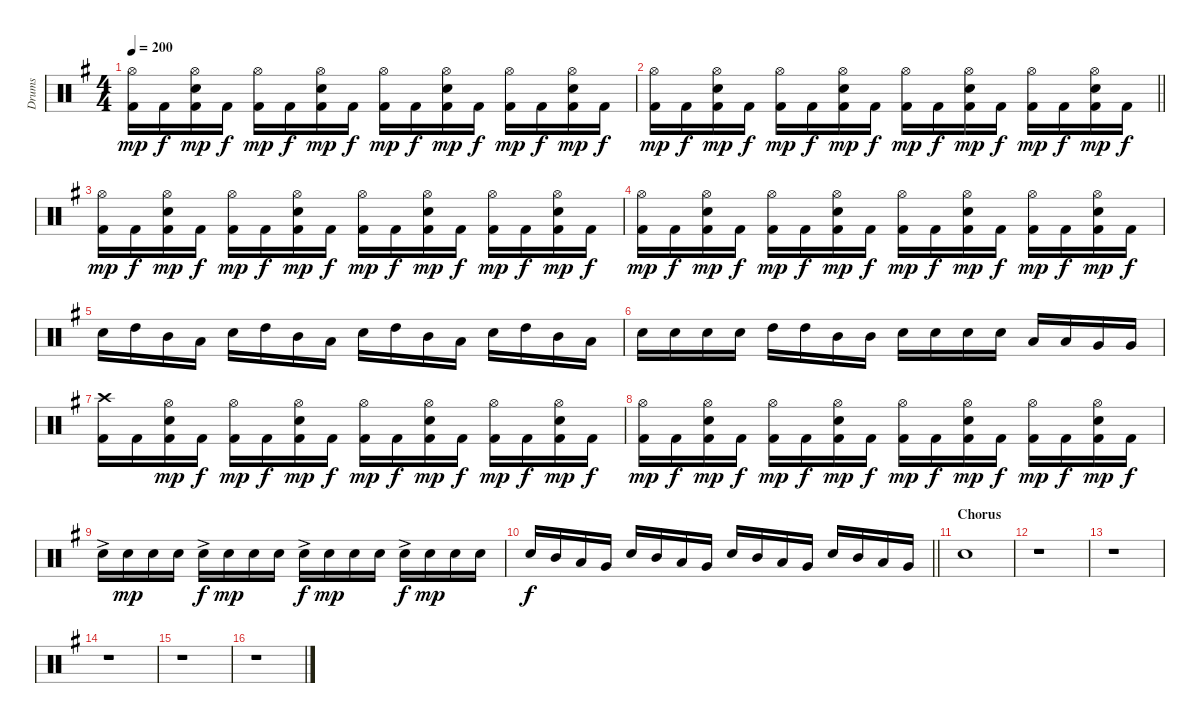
\track ("Drums" "Drums") {instrument percussion}
\staff {score}
\articulation defaults
\ts (4 4)
\tempo 200
\clef neutral
\ks g
("Hi-Hat (open)" "Kick (hit) 2").16{dy mp} "Kick (hit) 2".16{dy f} ("Hi-Hat (open)" "Snare (hit) 2" "Kick (hit) 2").16{dy mp} "Kick (hit) 2".16{dy f} ("Hi-Hat (open)" "Kick (hit) 2").16{dy mp} "Kick (hit) 2".16{dy f} ("Hi-Hat (open)" "Snare (hit) 2" "Kick (hit) 2").16{dy mp} "Kick (hit) 2".16{dy f} ("Hi-Hat (open)" "Kick (hit) 2").16{dy mp} "Kick (hit) 2".16{dy f} ("Hi-Hat (open)" "Snare (hit) 2" "Kick (hit) 2").16{dy mp} "Kick (hit) 2".16{dy f} ("Hi-Hat (open)" "Kick (hit) 2").16{dy mp} "Kick (hit) 2".16{dy f} ("Hi-Hat (open)" "Snare (hit) 2" "Kick (hit) 2").16{dy mp} "Kick (hit) 2".16{dy f} |
\barLineRight lightlight
("Hi-Hat (open)" "Kick (hit) 2").16{dy mp} "Kick (hit) 2".16{dy f} ("Hi-Hat (open)" "Snare (hit) 2" "Kick (hit) 2").16{dy mp} "Kick (hit) 2".16{dy f} ("Hi-Hat (open)" "Kick (hit) 2").16{dy mp} "Kick (hit) 2".16{dy f} ("Hi-Hat (open)" "Snare (hit) 2" "Kick (hit) 2").16{dy mp} "Kick (hit) 2".16{dy f} ("Hi-Hat (open)" "Kick (hit) 2").16{dy mp} "Kick (hit) 2".16{dy f} ("Hi-Hat (open)" "Snare (hit) 2" "Kick (hit) 2").16{dy mp} "Kick (hit) 2".16{dy f} ("Hi-Hat (open)" "Kick (hit) 2").16{dy mp} "Kick (hit) 2".16{dy f} ("Hi-Hat (open)" "Snare (hit) 2" "Kick (hit) 2").16{dy mp} "Kick (hit) 2".16{dy f} |
\section ("" "")
("Hi-Hat (open)" "Kick (hit) 2").16{dy mp} "Kick (hit) 2".16{dy f} ("Hi-Hat (open)" "Snare (hit) 2" "Kick (hit) 2").16{dy mp} "Kick (hit) 2".16{dy f} ("Hi-Hat (open)" "Kick (hit) 2").16{dy mp} "Kick (hit) 2".16{dy f} ("Hi-Hat (open)" "Snare (hit) 2" "Kick (hit) 2").16{dy mp} "Kick (hit) 2".16{dy f} ("Hi-Hat (open)" "Kick (hit) 2").16{dy mp} "Kick (hit) 2".16{dy f} ("Hi-Hat (open)" "Snare (hit) 2" "Kick (hit) 2").16{dy mp} "Kick (hit) 2".16{dy f} ("Hi-Hat (open)" "Kick (hit) 2").16{dy mp} "Kick (hit) 2".16{dy f} ("Hi-Hat (open)" "Snare (hit) 2" "Kick (hit) 2").16{dy mp} "Kick (hit) 2".16{dy f} |
("Hi-Hat (open)" "Kick (hit) 2").16{dy mp} "Kick (hit) 2".16{dy f} ("Hi-Hat (open)" "Snare (hit) 2" "Kick (hit) 2").16{dy mp} "Kick (hit) 2".16{dy f} ("Hi-Hat (open)" "Kick (hit) 2").16{dy mp} "Kick (hit) 2".16{dy f} ("Hi-Hat (open)" "Snare (hit) 2" "Kick (hit) 2").16{dy mp} "Kick (hit) 2".16{dy f} ("Hi-Hat (open)" "Kick (hit) 2").16{dy mp} "Kick (hit) 2".16{dy f} ("Hi-Hat (open)" "Snare (hit) 2" "Kick (hit) 2").16{dy mp} "Kick (hit) 2".16{dy f} ("Hi-Hat (open)" "Kick (hit) 2").16{dy mp} "Kick (hit) 2".16{dy f} ("Hi-Hat (open)" "Snare (hit) 2" "Kick (hit) 2").16{dy mp} "Kick (hit) 2".16{dy f} |
"Snare (hit) 2".16 "High Tom (hit)".16 "Mid Tom (hit)".16 "Low Tom (hit)".16 "Snare (hit) 2".16 "High Tom (hit)".16 "Mid Tom (hit)".16 "Low Tom (hit)".16 "Snare (hit) 2".16 "High Tom (hit)".16 "Mid Tom (hit)".16 "Low Tom (hit)".16 "Snare (hit) 2".16 "High Tom (hit)".16 "Mid Tom (hit)".16 "Low Tom (hit)".16 |
"Snare (hit) 2".16 "Snare (hit) 2".16 "Snare (hit) 2".16 "Snare (hit) 2".16 "High Tom (hit)".16 "High Tom (hit)".16 "Mid Tom (hit)".16 "Mid Tom (hit)".16 "Snare (hit) 2".16 "Snare (hit) 2".16 "Snare (hit) 2".16 "Snare (hit) 2".16 "Low Tom (hit)".16 "Low Tom (hit)".16 "Very Low Tom (hit)".16 "Very Low Tom (hit)".16 |
("Crash high (hit)" "Kick (hit) 2").16 "Kick (hit) 2".16 ("Hi-Hat (open)" "Snare (hit) 2" "Kick (hit) 2").16{dy mp} "Kick (hit) 2".16{dy f} ("Hi-Hat (open)" "Kick (hit) 2").16{dy mp} "Kick (hit) 2".16{dy f} ("Hi-Hat (open)" "Snare (hit) 2" "Kick (hit) 2").16{dy mp} "Kick (hit) 2".16{dy f} ("Hi-Hat (open)" "Kick (hit) 2").16{dy mp} "Kick (hit) 2".16{dy f} ("Hi-Hat (open)" "Snare (hit) 2" "Kick (hit) 2").16{dy mp} "Kick (hit) 2".16{dy f} ("Hi-Hat (open)" "Kick (hit) 2").16{dy mp} "Kick (hit) 2".16{dy f} ("Hi-Hat (open)" "Snare (hit) 2" "Kick (hit) 2").16{dy mp} "Kick (hit) 2".16{dy f} |
("Hi-Hat (open)" "Kick (hit) 2").16{dy mp} "Kick (hit) 2".16{dy f} ("Hi-Hat (open)" "Snare (hit) 2" "Kick (hit) 2").16{dy mp} "Kick (hit) 2".16{dy f} ("Hi-Hat (open)" "Kick (hit) 2").16{dy mp} "Kick (hit) 2".16{dy f} ("Hi-Hat (open)" "Snare (hit) 2" "Kick (hit) 2").16{dy mp} "Kick (hit) 2".16{dy f} ("Hi-Hat (open)" "Kick (hit) 2").16{dy mp} "Kick (hit) 2".16{dy f} ("Hi-Hat (open)" "Snare (hit) 2" "Kick (hit) 2").16{dy mp} "Kick (hit) 2".16{dy f} ("Hi-Hat (open)" "Kick (hit) 2").16{dy mp} "Kick (hit) 2".16{dy f} ("Hi-Hat (open)" "Snare (hit) 2" "Kick (hit) 2").16{dy mp} "Kick (hit) 2".16{dy f} |
"Snare (hit) 2"{ac}.16 "Snare (hit) 2".16{dy mp} "Snare (hit) 2".16 "Snare (hit) 2".16 "Snare (hit) 2"{ac}.16{dy f} "Snare (hit) 2".16{dy mp} "Snare (hit) 2".16 "Snare (hit) 2".16 "Snare (hit) 2"{ac}.16{dy f} "Snare (hit) 2".16{dy mp} "Snare (hit) 2".16 "Snare (hit) 2".16 "Snare (hit) 2"{ac}.16{dy f} "Snare (hit) 2".16{dy mp} "Snare (hit) 2".16 "Snare (hit) 2".16 |
\barLineRight lightlight "Snare (hit) 2".16{dy f} "Mid Tom (hit)".16 "Low Tom (hit)".16 "Very Low Tom (hit)".16 "Snare (hit) 2".16 "Mid Tom (hit)".16 "Low Tom (hit)".16 "Very Low Tom (hit)".16 "Snare (hit) 2".16 "Mid Tom (hit)".16 "Low Tom (hit)".16 "Very Low Tom (hit)".16 "Snare (hit) 2".16 "Mid Tom (hit)".16 "Low Tom (hit)".16 "Very Low Tom (hit)".16
|
\section ("" "Chorus")
"Snare (hit) 2".1 |
r.1 |
r.1 |
r.1 |
r.1 |
r.1
